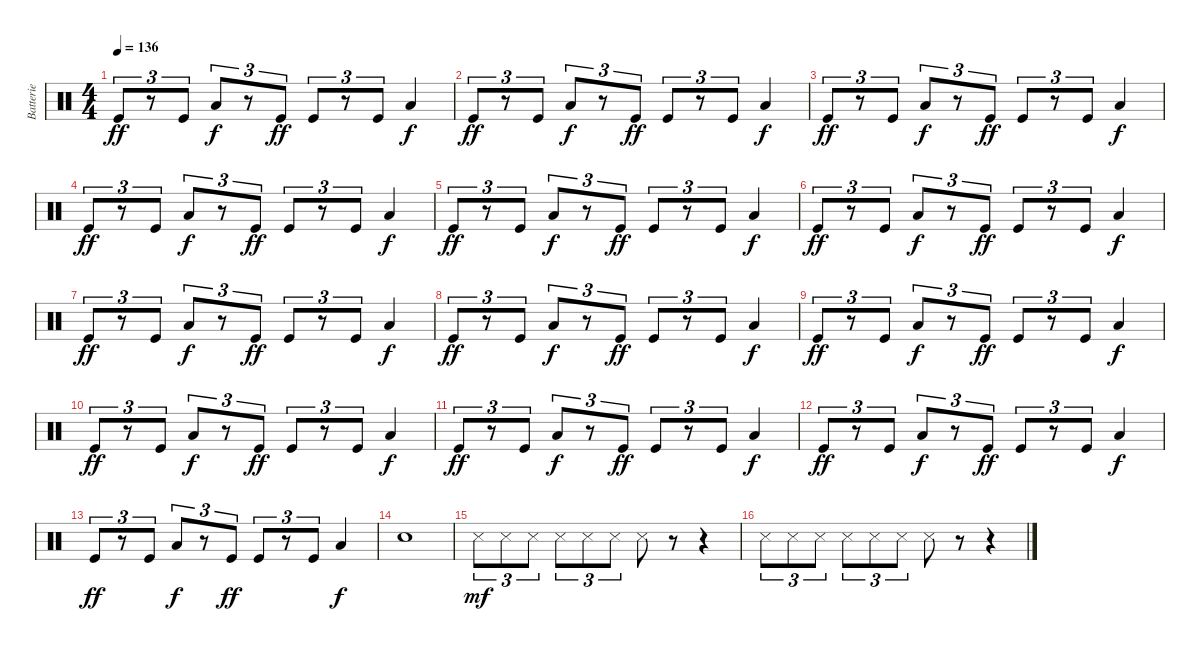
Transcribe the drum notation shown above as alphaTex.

\track ("Batterie" "Batterie") {instrument percussion}
\staff {score}
\articulation defaults
\ts (4 4)
\tempo 136
\clef neutral
\ks c "Kick (hit)".8{tu (3 2) dy ff}
r.8{tu (3 2)} "Kick (hit)".8{tu (3 2)} "Low Tom (hit)".8{tu (3 2) dy f} r.8{tu (3 2)} "Kick (hit)".8{tu (3 2) dy ff} "Kick (hit)".8{tu (3 2)} r.8{tu (3 2)} "Kick (hit)".8{tu (3 2)} "Low Tom (hit)".4{dy f} |
"Kick (hit)".8{tu (3 2) dy ff} r.8{tu (3 2)} "Kick (hit)".8{tu (3 2)} "Low Tom (hit)".8{tu (3 2) dy f} r.8{tu (3 2)} "Kick (hit)".8{tu (3 2) dy ff} "Kick (hit)".8{tu (3 2)} r.8{tu (3 2)} "Kick (hit)".8{tu (3 2)} "Low Tom (hit)".4{dy f} |
"Kick (hit)".8{tu (3 2) dy ff} r.8{tu (3 2)} "Kick (hit)".8{tu (3 2)} "Low Tom (hit)".8{tu (3 2) dy f} r.8{tu (3 2)} "Kick (hit)".8{tu (3 2) dy ff} "Kick (hit)".8{tu (3 2)} r.8{tu (3 2)} "Kick (hit)".8{tu (3 2)} "Low Tom (hit)".4{dy f} |
"Kick (hit)".8{tu (3 2) dy ff} r.8{tu (3 2)} "Kick (hit)".8{tu (3 2)} "Low Tom (hit)".8{tu (3 2) dy f} r.8{tu (3 2)} "Kick (hit)".8{tu (3 2) dy ff} "Kick (hit)".8{tu (3 2)} r.8{tu (3 2)} "Kick (hit)".8{tu (3 2)} "Low Tom (hit)".4{dy f} |
"Kick (hit)".8{tu (3 2) dy ff} r.8{tu (3 2)} "Kick (hit)".8{tu (3 2)} "Low Tom (hit)".8{tu (3 2) dy f} r.8{tu (3 2)} "Kick (hit)".8{tu (3 2) dy ff} "Kick (hit)".8{tu (3 2)} r.8{tu (3 2)} "Kick (hit)".8{tu (3 2)} "Low Tom (hit)".4{dy f} |
"Kick (hit)".8{tu (3 2) dy ff} r.8{tu (3 2)} "Kick (hit)".8{tu (3 2)} "Low Tom (hit)".8{tu (3 2) dy f} r.8{tu (3 2)} "Kick (hit)".8{tu (3 2) dy ff} "Kick (hit)".8{tu (3 2)} r.8{tu (3 2)} "Kick (hit)".8{tu (3 2)} "Low Tom (hit)".4{dy f} |
"Kick (hit)".8{tu (3 2) dy ff} r.8{tu (3 2)} "Kick (hit)".8{tu (3 2)} "Low Tom (hit)".8{tu (3 2) dy f} r.8{tu (3 2)} "Kick (hit)".8{tu (3 2) dy ff} "Kick (hit)".8{tu (3 2)} r.8{tu (3 2)} "Kick (hit)".8{tu (3 2)} "Low Tom (hit)".4{dy f} |
"Kick (hit)".8{tu (3 2) dy ff} r.8{tu (3 2)} "Kick (hit)".8{tu (3 2)} "Low Tom (hit)".8{tu (3 2) dy f} r.8{tu (3 2)} "Kick (hit)".8{tu (3 2) dy ff} "Kick (hit)".8{tu (3 2)} r.8{tu (3 2)} "Kick (hit)".8{tu (3 2)} "Low Tom (hit)".4{dy f} |
"Kick (hit)".8{tu (3 2) dy ff} r.8{tu (3 2)} "Kick (hit)".8{tu (3 2)} "Low Tom (hit)".8{tu (3 2) dy f} r.8{tu (3 2)} "Kick (hit)".8{tu (3 2) dy ff} "Kick (hit)".8{tu (3 2)} r.8{tu (3 2)} "Kick (hit)".8{tu (3 2)} "Low Tom (hit)".4{dy f} |
"Kick (hit)".8{tu (3 2) dy ff} r.8{tu (3 2)} "Kick (hit)".8{tu (3 2)} "Low Tom (hit)".8{tu (3 2) dy f} r.8{tu (3 2)} "Kick (hit)".8{tu (3 2) dy ff} "Kick (hit)".8{tu (3 2)} r.8{tu (3 2)} "Kick (hit)".8{tu (3 2)} "Low Tom (hit)".4{dy f} |
"Kick (hit)".8{tu (3 2) dy ff} r.8{tu (3 2)} "Kick (hit)".8{tu (3 2)} "Low Tom (hit)".8{tu (3 2) dy f} r.8{tu (3 2)} "Kick (hit)".8{tu (3 2) dy ff} "Kick (hit)".8{tu (3 2)} r.8{tu (3 2)} "Kick (hit)".8{tu (3 2)} "Low Tom (hit)".4{dy f} |
"Kick (hit)".8{tu (3 2) dy ff} r.8{tu (3 2)} "Kick (hit)".8{tu (3 2)} "Low Tom (hit)".8{tu (3 2) dy f} r.8{tu (3 2)} "Kick (hit)".8{tu (3 2) dy ff} "Kick (hit)".8{tu (3 2)} r.8{tu (3 2)} "Kick (hit)".8{tu (3 2)} "Low Tom (hit)".4{dy f} |
"Kick (hit)".8{tu (3 2) dy ff} r.8{tu (3 2)} "Kick (hit)".8{tu (3 2)} "Low Tom (hit)".8{tu (3 2) dy f} r.8{tu (3 2)} "Kick (hit)".8{tu (3 2) dy ff} "Kick (hit)".8{tu (3 2)} r.8{tu (3 2)} "Kick (hit)".8{tu (3 2)} "Low Tom (hit)".4{dy f} |
"Snare (hit) 2".1 |
"Snare (side stick) 3".8{tu (3 2) dy mf} "Snare (side stick) 3".8{tu (3 2)} "Snare (side stick) 3".8{tu (3 2)} "Snare (side stick) 3".8{tu (3 2)} "Snare (side stick) 3".8{tu (3 2)} "Snare (side stick) 3".8{tu (3 2)} "Snare (side stick) 3".8 r.8 r.4 |
"Snare (side stick) 3".8{tu (3 2)} "Snare (side stick) 3".8{tu (3 2)} "Snare (side stick) 3".8{tu (3 2)} "Snare (side stick) 3".8{tu (3 2)} "Snare (side stick) 3".8{tu (3 2)} "Snare (side stick) 3".8{tu (3 2)} "Snare (side stick) 3".8 r.8 r.4
